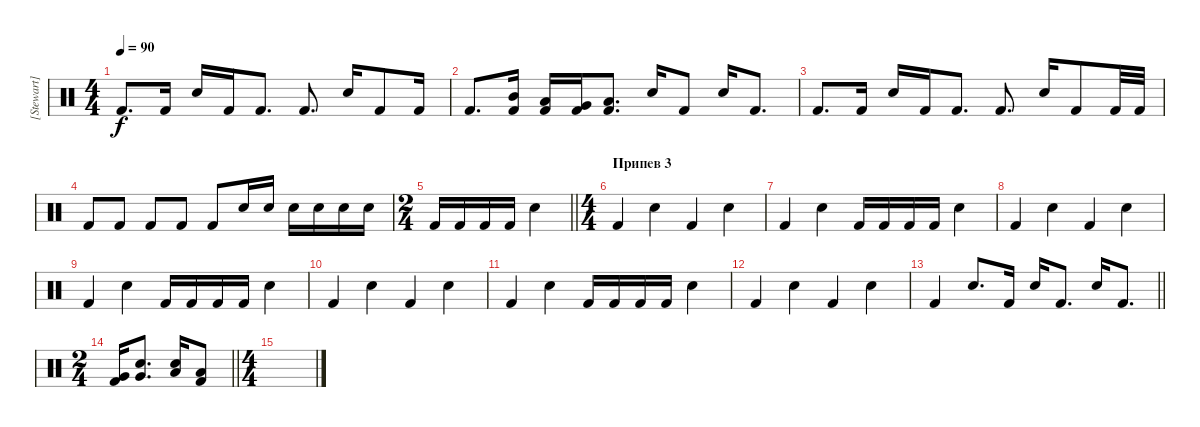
\track ("[Stewart] (drums)" "[Stewart] ") {instrument percussion}
\staff {score}
\articulation defaults
\ts (4 4)
\tempo 90
\clef neutral
\ks c "Kick (hit) 2".8{d dy f} "Kick (hit) 2".16 "Snare (hit) 2".16 "Kick (hit) 2".16 "Kick (hit) 2".8{d} "Kick (hit) 2".8{d} "Snare (hit) 2".16 "Kick (hit) 2".8 "Kick (hit) 2".16
|
"Kick (hit) 2".8{d} ("Kick (hit) 2" "Mid Tom (hit)").16 ("Kick (hit) 2" "Low Tom (hit)").16 ("Kick (hit) 2" "Very Low Tom (hit)").16 ("Kick (hit) 2" "Low Floor Tom (hit)").8{d} "Snare (hit) 2".16 "Kick (hit) 2".8 "Snare (hit) 2".16 "Kick (hit) 2".8{d} |
"Kick (hit) 2".8{d} "Kick (hit) 2".16 "Snare (hit) 2".16 "Kick (hit) 2".16 "Kick (hit) 2".8{d} "Kick (hit) 2".8{d} "Snare (hit) 2".16 "Kick (hit) 2".8 "Kick (hit) 2".32 "Kick (hit) 2".32 |
"Kick (hit) 2".8 "Kick (hit) 2".8 "Kick (hit) 2".8 "Kick (hit) 2".8 "Kick (hit) 2".8 "Snare (hit) 2".16 "Snare (hit) 2".16 "Snare (hit) 2".16 "Snare (hit) 2".16 "Snare (hit) 2".16 "Snare (hit) 2".16 |
\ts (2 4)
\barLineRight lightlight "Kick (hit) 2".16 "Kick (hit) 2".16 "Kick (hit) 2".16 "Kick (hit) 2".16 "Snare (hit) 2".4
|
\ts (4 4)
\section ("" "Припев 3")
"Kick (hit) 2".4 "Snare (hit) 2".4 "Kick (hit) 2".4 "Snare (hit) 2".4 |
"Kick (hit) 2".4 "Snare (hit) 2".4 "Kick (hit) 2".16 "Kick (hit) 2".16 "Kick (hit) 2".16 "Kick (hit) 2".16 "Snare (hit) 2".4 |
"Kick (hit) 2".4 "Snare (hit) 2".4 "Kick (hit) 2".4 "Snare (hit) 2".4 |
"Kick (hit) 2".4 "Snare (hit) 2".4 "Kick (hit) 2".16 "Kick (hit) 2".16 "Kick (hit) 2".16 "Kick (hit) 2".16 "Snare (hit) 2".4 |
"Kick (hit) 2".4 "Snare (hit) 2".4 "Kick (hit) 2".4 "Snare (hit) 2".4 |
"Kick (hit) 2".4 "Snare (hit) 2".4 "Kick (hit) 2".16 "Kick (hit) 2".16 "Kick (hit) 2".16 "Kick (hit) 2".16 "Snare (hit) 2".4 |
"Kick (hit) 2".4 "Snare (hit) 2".4 "Kick (hit) 2".4 "Snare (hit) 2".4 |
\barLineRight lightlight "Kick (hit) 2".4 "Snare (hit) 2".8{d} "Kick (hit) 2".16 "Snare (hit) 2".16 "Kick (hit) 2".8{d} "Snare (hit) 2".16 "Kick (hit) 2".8{d}
|
\ts (2 4)
\barLineRight lightlight
("Kick (hit) 2" "Very Low Tom (hit)").16 ("Snare (hit) 2" "Very Low Tom (hit)").8{d} ("Snare (hit) 2" "Low Floor Tom (hit)").16 ("Kick (hit) 2" "Low Floor Tom (hit)").8 |
\ts (4 4)
